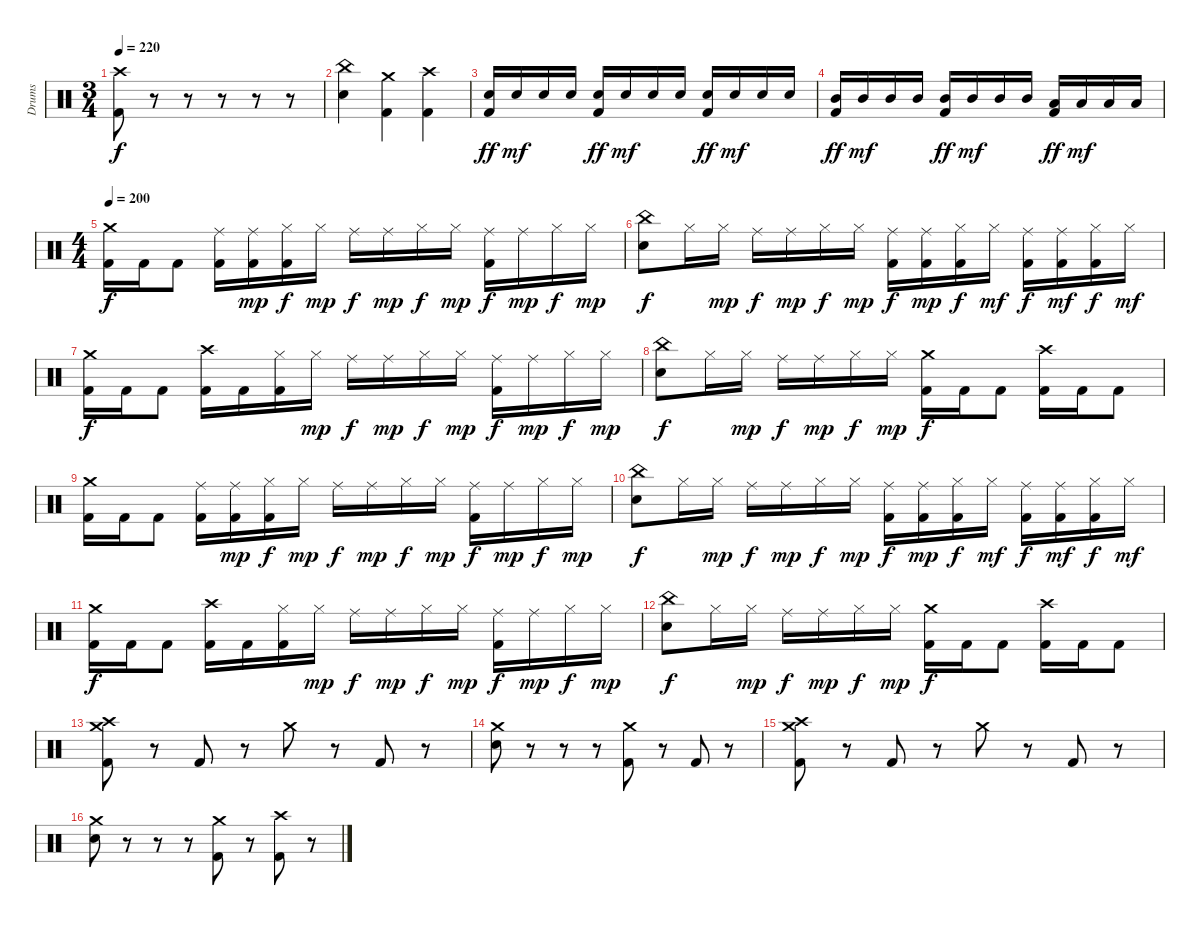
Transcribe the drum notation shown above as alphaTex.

\track ("Drums" "Drums") {instrument percussion}
\staff
\articulation defaults
\ts (3 4)
\tempo 220
\clef neutral
\ks c
("Crash high (hit)" "Kick (hit) 2").8{dy f} r.8 r.8 r.8 r.8 r.8 |
("China (hit)" "Electric Snare (hit)").4 ("Crash medium (hit)" "Kick (hit) 2").4 ("Crash high (hit)" "Kick (hit) 2").4 |
("Electric Snare (hit)" "Kick (hit) 2").16{dy ff} "Electric Snare (hit)".16{dy mf} "Electric Snare (hit)".16 "Electric Snare (hit)".16 ("Electric Snare (hit)" "Kick (hit) 2").16{dy ff} "Electric Snare (hit)".16{dy mf} "Electric Snare (hit)".16 "Electric Snare (hit)".16 ("Electric Snare (hit)" "Kick (hit) 2").16{dy ff} "Electric Snare (hit)".16{dy mf} "Electric Snare (hit)".16 "Electric Snare (hit)".16 |
("Mid Tom (hit)" "Kick (hit) 2").16{dy ff} "Mid Tom (hit)".16{dy mf} "Mid Tom (hit)".16 "Mid Tom (hit)".16 ("Mid Tom (hit)" "Kick (hit) 2").16{dy ff} "Mid Tom (hit)".16{dy mf} "Mid Tom (hit)".16 "Mid Tom (hit)".16 ("Low Tom (hit)" "Kick (hit) 2").16{dy ff} "Low Tom (hit)".16{dy mf} "Low Tom (hit)".16 "Low Tom (hit)".16 |
\ts (4 4)
\tempo 200
("Crash medium (hit)" "Kick (hit) 2").16{dy f} "Kick (hit) 2".16 "Kick (hit) 2".8 ("Ride (middle)" "Kick (hit) 2").16 ("Ride (middle)" "Kick (hit) 2").16{dy mp} ("Hi-Hat (closed)" "Kick (hit) 2").16{dy f} "Hi-Hat (closed)".16{dy mp} "Ride (middle)".16{dy f} "Ride (middle)".16{dy mp} "Hi-Hat (closed)".16{dy f} "Hi-Hat (closed)".16{dy mp} ("Ride (middle)" "Kick (hit) 2").16{dy f} "Ride (middle)".16{dy mp} "Hi-Hat (closed)".16{dy f} "Hi-Hat (closed)".16{dy mp} |
("China (hit)" "Electric Snare (hit)").8{dy f} "Hi-Hat (closed)".16 "Hi-Hat (closed)".16{dy mp} "Ride (middle)".16{dy f} "Ride (middle)".16{dy mp} "Hi-Hat (closed)".16{dy f} "Hi-Hat (closed)".16{dy mp} ("Ride (middle)" "Kick (hit) 2").16{dy f} ("Ride (middle)" "Kick (hit) 2").16{dy mp} ("Hi-Hat (closed)" "Kick (hit) 2").16{dy f} "Hi-Hat (closed)".16{dy mf} ("Ride (middle)" "Kick (hit) 2").16{dy f} ("Ride (middle)" "Kick (hit) 2").16{dy mf} ("Hi-Hat (closed)" "Kick (hit) 2").16{dy f} "Hi-Hat (closed)".16{dy mf} |
("Crash medium (hit)" "Kick (hit) 2").16{dy f} "Kick (hit) 2".16 "Kick (hit) 2".8 ("Crash high (hit)" "Kick (hit) 2").16 "Kick (hit) 2".16 ("Hi-Hat (closed)" "Kick (hit) 2").16 "Hi-Hat (closed)".16{dy mp} "Ride (middle)".16{dy f} "Ride (middle)".16{dy mp} "Hi-Hat (closed)".16{dy f} "Hi-Hat (closed)".16{dy mp} ("Ride (middle)" "Kick (hit) 2").16{dy f} "Ride (middle)".16{dy mp} "Hi-Hat (closed)".16{dy f} "Hi-Hat (closed)".16{dy mp} |
("China (hit)" "Electric Snare (hit)").8{dy f} "Hi-Hat (closed)".16 "Hi-Hat (closed)".16{dy mp} "Ride (middle)".16{dy f} "Ride (middle)".16{dy mp} "Hi-Hat (closed)".16{dy f} "Hi-Hat (closed)".16{dy mp} ("Crash medium (hit)" "Kick (hit) 2").16{dy f} "Kick (hit) 2".16 "Kick (hit) 2".8 ("Crash high (hit)" "Kick (hit) 2").16 "Kick (hit) 2".16 "Kick (hit) 2".8 |
("Crash medium (hit)" "Kick (hit) 2").16 "Kick (hit) 2".16 "Kick (hit) 2".8 ("Ride (middle)" "Kick (hit) 2").16 ("Ride (middle)" "Kick (hit) 2").16{dy mp} ("Hi-Hat (closed)" "Kick (hit) 2").16{dy f} "Hi-Hat (closed)".16{dy mp} "Ride (middle)".16{dy f} "Ride (middle)".16{dy mp} "Hi-Hat (closed)".16{dy f} "Hi-Hat (closed)".16{dy mp} ("Ride (middle)" "Kick (hit) 2").16{dy f} "Ride (middle)".16{dy mp} "Hi-Hat (closed)".16{dy f} "Hi-Hat (closed)".16{dy mp} |
("China (hit)" "Electric Snare (hit)").8{dy f} "Hi-Hat (closed)".16 "Hi-Hat (closed)".16{dy mp} "Ride (middle)".16{dy f} "Ride (middle)".16{dy mp} "Hi-Hat (closed)".16{dy f} "Hi-Hat (closed)".16{dy mp} ("Ride (middle)" "Kick (hit) 2").16{dy f} ("Ride (middle)" "Kick (hit) 2").16{dy mp} ("Hi-Hat (closed)" "Kick (hit) 2").16{dy f} "Hi-Hat (closed)".16{dy mf} ("Ride (middle)" "Kick (hit) 2").16{dy f} ("Ride (middle)" "Kick (hit) 2").16{dy mf} ("Hi-Hat (closed)" "Kick (hit) 2").16{dy f} "Hi-Hat (closed)".16{dy mf} |
("Crash medium (hit)" "Kick (hit) 2").16{dy f} "Kick (hit) 2".16 "Kick (hit) 2".8 ("Crash high (hit)" "Kick (hit) 2").16 "Kick (hit) 2".16 ("Hi-Hat (closed)" "Kick (hit) 2").16 "Hi-Hat (closed)".16{dy mp} "Ride (middle)".16{dy f} "Ride (middle)".16{dy mp} "Hi-Hat (closed)".16{dy f} "Hi-Hat (closed)".16{dy mp} ("Ride (middle)" "Kick (hit) 2").16{dy f} "Ride (middle)".16{dy mp} "Hi-Hat (closed)".16{dy f} "Hi-Hat (closed)".16{dy mp} |
("China (hit)" "Electric Snare (hit)").8{dy f} "Hi-Hat (closed)".16 "Hi-Hat (closed)".16{dy mp} "Ride (middle)".16{dy f} "Ride (middle)".16{dy mp} "Hi-Hat (closed)".16{dy f} "Hi-Hat (closed)".16{dy mp} ("Crash medium (hit)" "Kick (hit) 2").16{dy f} "Kick (hit) 2".16 "Kick (hit) 2".8 ("Crash high (hit)" "Kick (hit) 2").16 "Kick (hit) 2".16 "Kick (hit) 2".8 |
("Crash medium (hit)" "Crash high (hit)" "Kick (hit) 2").8 r.8 "Kick (hit) 2".8 r.8 "Crash medium (hit)".8 r.8 "Kick (hit) 2".8 r.8 |
("Crash medium (hit)" "Electric Snare (hit)").8 r.8 r.8 r.8 ("Crash medium (hit)" "Kick (hit) 2").8 r.8 "Kick (hit) 2".8 r.8 |
("Crash medium (hit)" "Crash high (hit)" "Kick (hit) 2").8 r.8 "Kick (hit) 2".8 r.8 "Crash medium (hit)".8 r.8 "Kick (hit) 2".8 r.8 |
("Crash medium (hit)" "Electric Snare (hit)").8 r.8 r.8 r.8 ("Crash medium (hit)" "Kick (hit) 2").8 r.8 ("Crash high (hit)" "Kick (hit) 2").8 r.8
